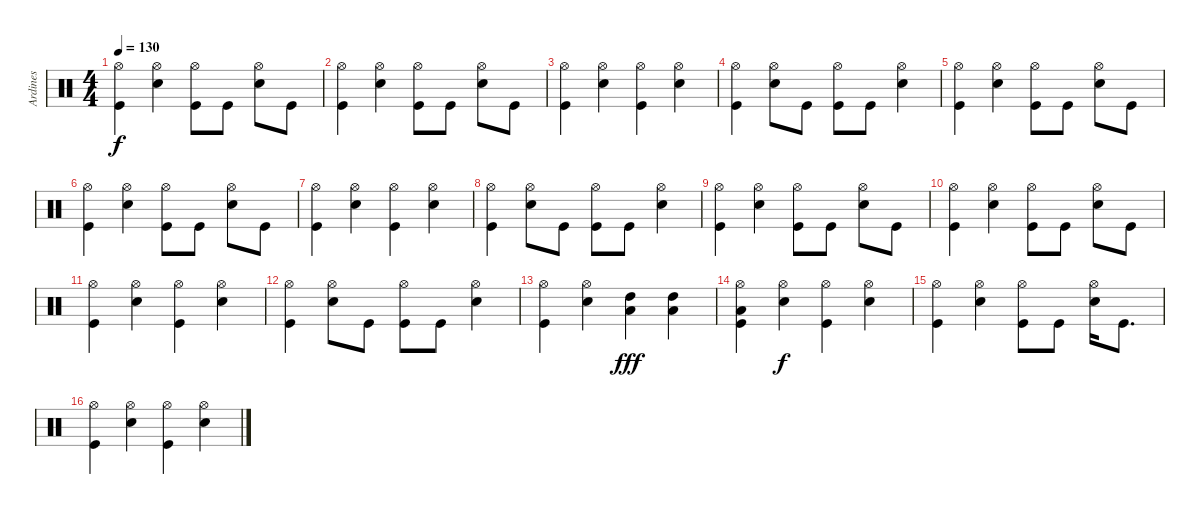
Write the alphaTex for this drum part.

\track ("Ardines" "Ardines") {instrument percussion}
\staff {score}
\articulation defaults
\ts (4 4)
\tempo 130
\clef neutral
\ks c
("Hi-Hat (open)" "Kick (hit)").4{dy f} ("Hi-Hat (open)" "Electric Snare (hit)").4 ("Hi-Hat (open)" "Kick (hit)").8 "Kick (hit)".8 ("Hi-Hat (open)" "Electric Snare (hit)").8 "Kick (hit)".8 |
("Hi-Hat (open)" "Kick (hit)").4 ("Hi-Hat (open)" "Electric Snare (hit)").4 ("Hi-Hat (open)" "Kick (hit)").8 "Kick (hit)".8 ("Hi-Hat (open)" "Electric Snare (hit)").8 "Kick (hit)".8 |
("Hi-Hat (open)" "Kick (hit)").4 ("Hi-Hat (open)" "Electric Snare (hit)").4 ("Hi-Hat (open)" "Kick (hit)").4 ("Hi-Hat (open)" "Electric Snare (hit)").4 |
("Hi-Hat (open)" "Kick (hit)").4 ("Hi-Hat (open)" "Electric Snare (hit)").8 "Kick (hit)".8 ("Hi-Hat (open)" "Kick (hit)").8 "Kick (hit)".8 ("Hi-Hat (open)" "Electric Snare (hit)").4 |
("Hi-Hat (open)" "Kick (hit)").4 ("Hi-Hat (open)" "Electric Snare (hit)").4 ("Hi-Hat (open)" "Kick (hit)").8 "Kick (hit)".8 ("Hi-Hat (open)" "Electric Snare (hit)").8 "Kick (hit)".8 |
("Hi-Hat (open)" "Kick (hit)").4 ("Hi-Hat (open)" "Electric Snare (hit)").4 ("Hi-Hat (open)" "Kick (hit)").8 "Kick (hit)".8 ("Hi-Hat (open)" "Electric Snare (hit)").8 "Kick (hit)".8 |
("Hi-Hat (open)" "Kick (hit)").4 ("Hi-Hat (open)" "Electric Snare (hit)").4 ("Hi-Hat (open)" "Kick (hit)").4 ("Hi-Hat (open)" "Electric Snare (hit)").4 |
("Hi-Hat (open)" "Kick (hit)").4 ("Hi-Hat (open)" "Electric Snare (hit)").8 "Kick (hit)".8 ("Hi-Hat (open)" "Kick (hit)").8 "Kick (hit)".8 ("Hi-Hat (open)" "Electric Snare (hit)").4 |
("Hi-Hat (open)" "Kick (hit)").4 ("Hi-Hat (open)" "Electric Snare (hit)").4 ("Hi-Hat (open)" "Kick (hit)").8 "Kick (hit)".8 ("Hi-Hat (open)" "Electric Snare (hit)").8 "Kick (hit)".8 |
("Hi-Hat (open)" "Kick (hit)").4 ("Hi-Hat (open)" "Electric Snare (hit)").4 ("Hi-Hat (open)" "Kick (hit)").8 "Kick (hit)".8 ("Hi-Hat (open)" "Electric Snare (hit)").8 "Kick (hit)".8 |
("Hi-Hat (open)" "Kick (hit)").4 ("Hi-Hat (open)" "Electric Snare (hit)").4 ("Hi-Hat (open)" "Kick (hit)").4 ("Hi-Hat (open)" "Electric Snare (hit)").4 |
("Hi-Hat (open)" "Kick (hit)").4 ("Hi-Hat (open)" "Electric Snare (hit)").8 "Kick (hit)".8 ("Hi-Hat (open)" "Kick (hit)").8 "Kick (hit)".8 ("Hi-Hat (open)" "Electric Snare (hit)").4 |
("Hi-Hat (open)" "Kick (hit)").4 ("Hi-Hat (open)" "Electric Snare (hit)").4 ("High Tom (hit)" "Low Tom (hit)").4{dy fff} ("High Tom (hit)" "Low Tom (hit)").4 |
("Hi-Hat (open)" "Low Tom (hit)" "Kick (hit)").4 ("Hi-Hat (open)" "Electric Snare (hit)").4{dy f} ("Hi-Hat (open)" "Kick (hit)").4 ("Hi-Hat (open)" "Electric Snare (hit)").4 |
("Hi-Hat (open)" "Kick (hit)").4 ("Hi-Hat (open)" "Electric Snare (hit)").4 ("Hi-Hat (open)" "Kick (hit)").8 "Kick (hit)".8 ("Hi-Hat (open)" "Electric Snare (hit)").16 "Kick (hit)".8{d} |
("Hi-Hat (open)" "Kick (hit)").4 ("Hi-Hat (open)" "Electric Snare (hit)").4 ("Hi-Hat (open)" "Kick (hit)").4 ("Hi-Hat (open)" "Electric Snare (hit)").4
